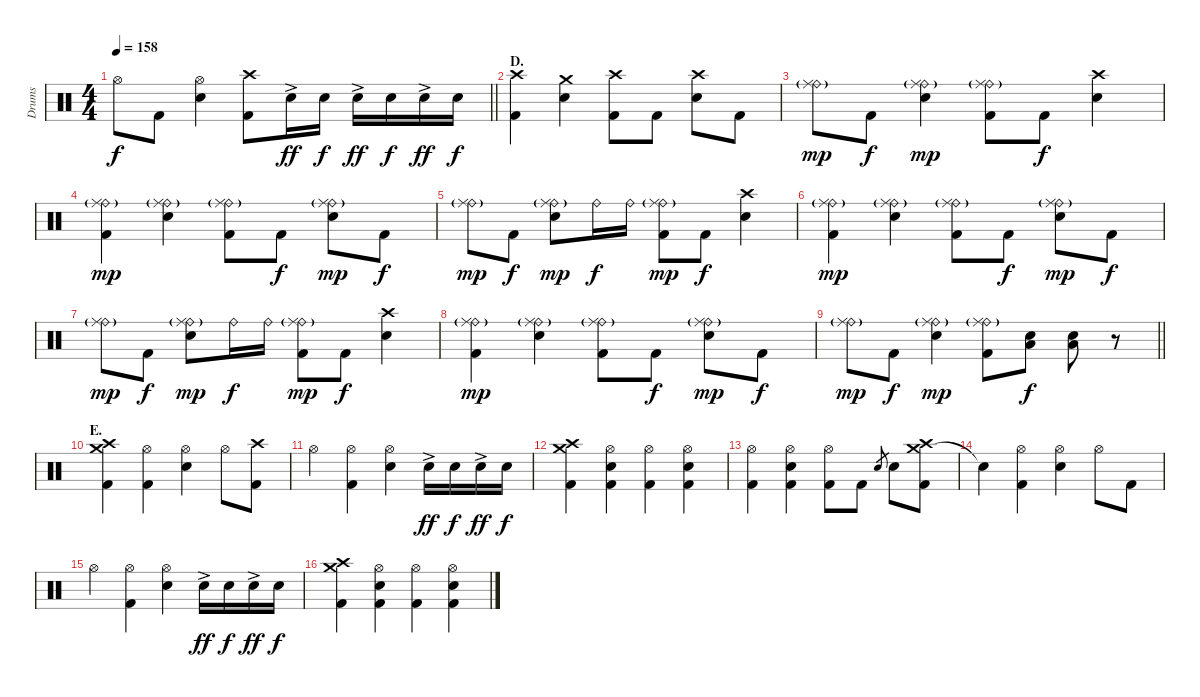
\track ("Drums" "Drums") {instrument percussion}
\staff {score}
\articulation defaults
\ts (4 4)
\tempo 158
\clef neutral
\barLineRight lightlight
\ks c "Hi-Hat (open)".8{dy f} "Kick (hit) 2".8
("Hi-Hat (open)" "Electric Snare (hit)").4 ("Crash high (hit)" "Kick (hit) 2").8 "Electric Snare (hit)"{ac}.16{dy ff} "Electric Snare (hit)".16{dy f} "Electric Snare (hit)"{ac}.16{dy ff} "Electric Snare (hit)".16{dy f} "Electric Snare (hit)"{ac}.16{dy ff} "Electric Snare (hit)".16{dy f} |
\section ("" "D.")
("Crash high (hit)" "Kick (hit) 2").4 ("Crash medium (hit)" "Electric Snare (hit)").4 ("Crash high (hit)" "Kick (hit) 2").8 "Kick (hit) 2".8 ("Crash high (hit)" "Electric Snare (hit)").8 "Kick (hit) 2".8 |
("Ride (bell)"{g} "Ride (middle)").8{dy mp} "Kick (hit) 2".8{dy f} ("Ride (bell)"{g} "Ride (middle)" "Electric Snare (hit)").4{dy mp} ("Ride (bell)"{g} "Ride (middle)" "Kick (hit) 2").8 "Kick (hit) 2".8{dy f} ("Crash high (hit)" "Electric Snare (hit)").4 |
("Ride (bell)"{g} "Ride (middle)" "Kick (hit) 2").4{dy mp} ("Ride (bell)"{g} "Ride (middle)" "Electric Snare (hit)").4 ("Ride (bell)"{g} "Ride (middle)" "Kick (hit) 2").8 "Kick (hit) 2".8{dy f} ("Ride (bell)"{g} "Ride (middle)" "Electric Snare (hit)").8{dy mp} "Kick (hit) 2".8{dy f} |
("Ride (bell)"{g} "Ride (middle)").8{dy mp} "Kick (hit) 2".8{dy f} ("Ride (bell)"{g} "Ride (middle)" "Electric Snare (hit)").8{dy mp} "Ride (bell)".16{dy f} "Ride (bell)".16 ("Ride (bell)"{g} "Ride (middle)" "Kick (hit) 2").8{dy mp} "Kick (hit) 2".8{dy f} ("Crash high (hit)" "Electric Snare (hit)").4 |
("Ride (bell)"{g} "Ride (middle)" "Kick (hit) 2").4{dy mp} ("Ride (bell)"{g} "Ride (middle)" "Electric Snare (hit)").4 ("Ride (bell)"{g} "Ride (middle)" "Kick (hit) 2").8 "Kick (hit) 2".8{dy f} ("Ride (bell)"{g} "Ride (middle)" "Electric Snare (hit)").8{dy mp} "Kick (hit) 2".8{dy f} |
("Ride (bell)"{g} "Ride (middle)").8{dy mp} "Kick (hit) 2".8{dy f} ("Ride (bell)"{g} "Ride (middle)" "Electric Snare (hit)").8{dy mp} "Ride (bell)".16{dy f} "Ride (bell)".16 ("Ride (bell)"{g} "Ride (middle)" "Kick (hit) 2").8{dy mp} "Kick (hit) 2".8{dy f} ("Crash high (hit)" "Electric Snare (hit)").4 |
("Ride (bell)"{g} "Ride (middle)" "Kick (hit) 2").4{dy mp} ("Ride (bell)"{g} "Ride (middle)" "Electric Snare (hit)").4 ("Ride (bell)"{g} "Ride (middle)" "Kick (hit) 2").8 "Kick (hit) 2".8{dy f} ("Ride (bell)"{g} "Ride (middle)" "Electric Snare (hit)").8{dy mp} "Kick (hit) 2".8{dy f} |
\barLineRight lightlight
("Ride (bell)"{g} "Ride (middle)").8{dy mp} "Kick (hit) 2".8{dy f} ("Ride (bell)"{g} "Ride (middle)" "Electric Snare (hit)").4{dy mp} ("Ride (bell)"{g} "Ride (middle)" "Kick (hit) 2").8 ("Electric Snare (hit)" "Low Floor Tom (hit)").8{dy f} ("Electric Snare (hit)" "Low Floor Tom (hit)").8 r.8 |
\section ("" "E.")
("Crash medium (hit)" "Crash high (hit)" "Kick (hit) 2").4 ("Hi-Hat (open)" "Kick (hit) 2").4 ("Hi-Hat (open)" "Electric Snare (hit)").4 "Hi-Hat (open)".8 ("Crash high (hit)" "Kick (hit) 2").8 |
"Hi-Hat (open)".4 ("Hi-Hat (open)" "Kick (hit) 2").4 ("Hi-Hat (open)" "Electric Snare (hit)").4 "Electric Snare (hit)"{ac}.16{dy ff} "Electric Snare (hit)".16{dy f} "Electric Snare (hit)"{ac}.16{dy ff} "Electric Snare (hit)".16{dy f} |
("Crash medium (hit)" "Crash high (hit)" "Kick (hit) 2").4 ("Hi-Hat (open)" "Electric Snare (hit)" "Kick (hit) 2").4 ("Hi-Hat (open)" "Kick (hit) 2").4 ("Hi-Hat (open)" "Electric Snare (hit)" "Kick (hit) 2").4 |
("Hi-Hat (open)" "Kick (hit) 2").4 ("Hi-Hat (open)" "Electric Snare (hit)" "Kick (hit) 2").4 ("Hi-Hat (open)" "Kick (hit) 2").8 "Kick (hit) 2".8 "Electric Snare (hit)".8{gr} "Electric Snare (hit)".8 ("Crash medium (hit)" "Crash high (hit)" "Kick (hit) 2").8 |
"Snare (hit)"{t}.4 ("Hi-Hat (open)" "Kick (hit) 2").4 ("Hi-Hat (open)" "Electric Snare (hit)").4 "Hi-Hat (open)".8 "Kick (hit) 2".8 |
"Hi-Hat (open)".4 ("Hi-Hat (open)" "Kick (hit) 2").4 ("Hi-Hat (open)" "Electric Snare (hit)").4 "Electric Snare (hit)"{ac}.16{dy ff} "Electric Snare (hit)".16{dy f} "Electric Snare (hit)"{ac}.16{dy ff} "Electric Snare (hit)".16{dy f} |
("Crash medium (hit)" "Crash high (hit)" "Kick (hit) 2").4 ("Hi-Hat (open)" "Electric Snare (hit)" "Kick (hit) 2").4 ("Hi-Hat (open)" "Kick (hit) 2").4 ("Hi-Hat (open)" "Electric Snare (hit)" "Kick (hit) 2").4
